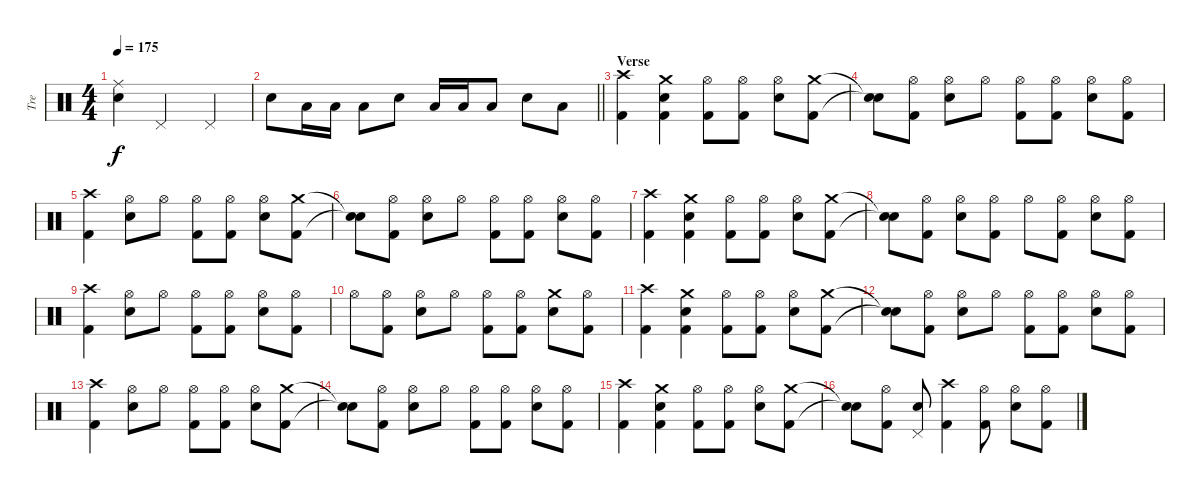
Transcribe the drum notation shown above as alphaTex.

\track ("Tre" "Tre") {instrument percussion}
\staff {score}
\articulation defaults
\ts (4 4)
\tempo 175
\clef neutral
\ks c
("Ride (middle)" "Snare (hit)"{t}).4{dy f} "Pedal Hi-Hat (hit)".2 "Pedal Hi-Hat (hit)".4 |
\barLineRight lightlight "Snare (hit) 2".8 "Low Floor Tom (hit)".16 "Low Floor Tom (hit)".16 "Low Floor Tom (hit)".8 "Snare (hit) 2".8 "Low Floor Tom (hit)".16 "Low Floor Tom (hit)".16 "Low Floor Tom (hit)".8 "Snare (hit) 2".8 "Low Floor Tom (hit)".8
|
\section ("" "Verse")
("Crash high (hit)" "Kick (hit) 2").4 ("Crash medium (hit)" "Snare (hit) 2" "Kick (hit) 2").4 ("Hi-Hat (open)" "Kick (hit) 2").8 ("Hi-Hat (open)" "Kick (hit) 2").8 ("Hi-Hat (open)" "Snare (hit) 2").8 ("Crash medium (hit)" "Kick (hit) 2").8 |
("Snare (hit)"{t} "Snare (hit)"{t}).8 ("Hi-Hat (open)" "Kick (hit) 2").8 ("Hi-Hat (open)" "Snare (hit) 2").8 "Hi-Hat (open)".8 ("Hi-Hat (open)" "Kick (hit) 2").8 ("Hi-Hat (open)" "Kick (hit) 2").8 ("Hi-Hat (open)" "Snare (hit) 2").8 ("Hi-Hat (open)" "Kick (hit) 2").8 |
("Crash high (hit)" "Kick (hit) 2").4 ("Hi-Hat (open)" "Snare (hit) 2").8 "Hi-Hat (open)".8 ("Hi-Hat (open)" "Kick (hit) 2").8 ("Hi-Hat (open)" "Kick (hit) 2").8 ("Hi-Hat (open)" "Snare (hit) 2").8 ("Crash medium (hit)" "Kick (hit) 2").8 |
("Snare (hit)"{t} "Snare (hit)"{t}).8 ("Hi-Hat (open)" "Kick (hit) 2").8 ("Hi-Hat (open)" "Snare (hit) 2").8 "Hi-Hat (open)".8 ("Hi-Hat (open)" "Kick (hit) 2").8 ("Hi-Hat (open)" "Kick (hit) 2").8 ("Hi-Hat (open)" "Snare (hit) 2").8 ("Hi-Hat (open)" "Kick (hit) 2").8 |
("Crash high (hit)" "Kick (hit) 2").4 ("Crash medium (hit)" "Snare (hit) 2" "Kick (hit) 2").4 ("Hi-Hat (open)" "Kick (hit) 2").8 ("Hi-Hat (open)" "Kick (hit) 2").8 ("Hi-Hat (open)" "Snare (hit) 2").8 ("Crash medium (hit)" "Kick (hit) 2").8 |
("Snare (hit)"{t} "Snare (hit)"{t}).8 ("Hi-Hat (open)" "Kick (hit) 2").8 ("Hi-Hat (open)" "Snare (hit) 2").8 ("Hi-Hat (open)" "Kick (hit) 2").8 "Hi-Hat (open)".8 ("Hi-Hat (open)" "Kick (hit) 2").8 ("Hi-Hat (open)" "Snare (hit) 2").8 ("Hi-Hat (open)" "Kick (hit) 2").8 |
("Crash high (hit)" "Kick (hit) 2").4 ("Hi-Hat (open)" "Snare (hit) 2").8 "Hi-Hat (open)".8 ("Hi-Hat (open)" "Kick (hit) 2").8 ("Hi-Hat (open)" "Kick (hit) 2").8 ("Hi-Hat (open)" "Snare (hit) 2").8 ("Hi-Hat (open)" "Kick (hit) 2").8 |
"Hi-Hat (open)".8 ("Hi-Hat (open)" "Kick (hit) 2").8 ("Hi-Hat (open)" "Snare (hit) 2").8 "Hi-Hat (open)".8 ("Hi-Hat (open)" "Kick (hit) 2").8 ("Hi-Hat (open)" "Kick (hit) 2").8 ("Crash medium (hit)" "Snare (hit) 2").8 ("Hi-Hat (open)" "Kick (hit) 2").8 |
("Crash high (hit)" "Kick (hit) 2").4 ("Crash medium (hit)" "Snare (hit) 2" "Kick (hit) 2").4 ("Hi-Hat (open)" "Kick (hit) 2").8 ("Hi-Hat (open)" "Kick (hit) 2").8 ("Hi-Hat (open)" "Snare (hit) 2").8 ("Crash medium (hit)" "Kick (hit) 2").8 |
("Snare (hit)"{t} "Snare (hit)"{t}).8 ("Hi-Hat (open)" "Kick (hit) 2").8 ("Hi-Hat (open)" "Snare (hit) 2").8 "Hi-Hat (open)".8 ("Hi-Hat (open)" "Kick (hit) 2").8 ("Hi-Hat (open)" "Kick (hit) 2").8 ("Hi-Hat (open)" "Snare (hit) 2").8 ("Hi-Hat (open)" "Kick (hit) 2").8 |
("Crash high (hit)" "Kick (hit) 2").4 ("Hi-Hat (open)" "Snare (hit) 2").8 "Hi-Hat (open)".8 ("Hi-Hat (open)" "Kick (hit) 2").8 ("Hi-Hat (open)" "Kick (hit) 2").8 ("Hi-Hat (open)" "Snare (hit) 2").8 ("Crash medium (hit)" "Kick (hit) 2").8 |
("Snare (hit)"{t} "Snare (hit)"{t}).8 ("Hi-Hat (open)" "Kick (hit) 2").8 ("Hi-Hat (open)" "Snare (hit) 2").8 "Hi-Hat (open)".8 ("Hi-Hat (open)" "Kick (hit) 2").8 ("Hi-Hat (open)" "Kick (hit) 2").8 ("Hi-Hat (open)" "Snare (hit) 2").8 ("Hi-Hat (open)" "Kick (hit) 2").8 |
("Crash high (hit)" "Kick (hit) 2").4 ("Crash medium (hit)" "Snare (hit) 2" "Kick (hit) 2").4 ("Hi-Hat (open)" "Kick (hit) 2").8 ("Hi-Hat (open)" "Kick (hit) 2").8 ("Hi-Hat (open)" "Snare (hit) 2").8 ("Crash medium (hit)" "Kick (hit) 2").8 |
("Snare (hit)"{t} "Snare (hit)"{t}).8 ("Hi-Hat (open)" "Kick (hit) 2").8 ("Snare (hit) 2" "Pedal Hi-Hat (hit)").8 ("Crash high (hit)" "Kick (hit) 2").4 ("Hi-Hat (open)" "Kick (hit) 2").8 ("Hi-Hat (open)" "Snare (hit) 2").8 ("Hi-Hat (open)" "Kick (hit) 2").8
